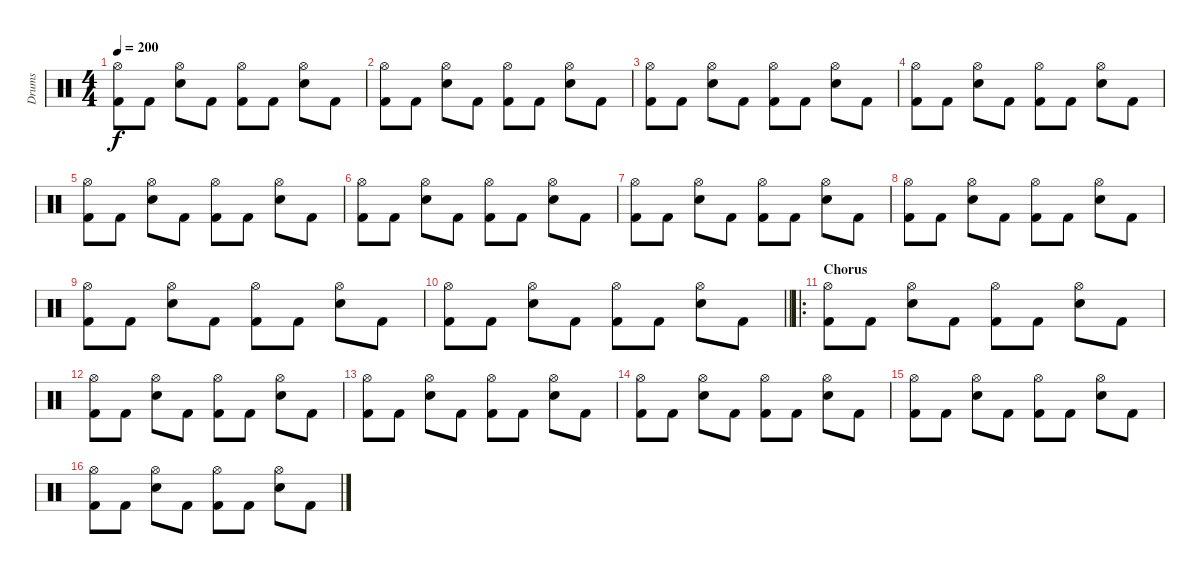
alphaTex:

\track ("Drums" "Drums") {instrument percussion}
\staff {score}
\articulation defaults
\ts (4 4)
\tempo 200
\clef neutral
\ks c
("Kick (hit) 2" "Hi-Hat (open)").8{dy f} "Kick (hit) 2".8 ("Snare (hit) 2" "Hi-Hat (open)").8 "Kick (hit) 2".8 ("Kick (hit) 2" "Hi-Hat (open)").8 "Kick (hit) 2".8 ("Snare (hit) 2" "Hi-Hat (open)").8 "Kick (hit) 2".8 |
("Kick (hit) 2" "Hi-Hat (open)").8 "Kick (hit) 2".8 ("Snare (hit) 2" "Hi-Hat (open)").8 "Kick (hit) 2".8 ("Kick (hit) 2" "Hi-Hat (open)").8 "Kick (hit) 2".8 ("Snare (hit) 2" "Hi-Hat (open)").8 "Kick (hit) 2".8 |
("Kick (hit) 2" "Hi-Hat (open)").8 "Kick (hit) 2".8 ("Snare (hit) 2" "Hi-Hat (open)").8 "Kick (hit) 2".8 ("Kick (hit) 2" "Hi-Hat (open)").8 "Kick (hit) 2".8 ("Snare (hit) 2" "Hi-Hat (open)").8 "Kick (hit) 2".8 |
("Kick (hit) 2" "Hi-Hat (open)").8 "Kick (hit) 2".8 ("Snare (hit) 2" "Hi-Hat (open)").8 "Kick (hit) 2".8 ("Kick (hit) 2" "Hi-Hat (open)").8 "Kick (hit) 2".8 ("Snare (hit) 2" "Hi-Hat (open)").8 "Kick (hit) 2".8 |
("Kick (hit) 2" "Hi-Hat (open)").8 "Kick (hit) 2".8 ("Snare (hit) 2" "Hi-Hat (open)").8 "Kick (hit) 2".8 ("Kick (hit) 2" "Hi-Hat (open)").8 "Kick (hit) 2".8 ("Snare (hit) 2" "Hi-Hat (open)").8 "Kick (hit) 2".8 |
("Kick (hit) 2" "Hi-Hat (open)").8 "Kick (hit) 2".8 ("Snare (hit) 2" "Hi-Hat (open)").8 "Kick (hit) 2".8 ("Kick (hit) 2" "Hi-Hat (open)").8 "Kick (hit) 2".8 ("Snare (hit) 2" "Hi-Hat (open)").8 "Kick (hit) 2".8 |
("Kick (hit) 2" "Hi-Hat (open)").8 "Kick (hit) 2".8 ("Snare (hit) 2" "Hi-Hat (open)").8 "Kick (hit) 2".8 ("Kick (hit) 2" "Hi-Hat (open)").8 "Kick (hit) 2".8 ("Snare (hit) 2" "Hi-Hat (open)").8 "Kick (hit) 2".8 |
("Kick (hit) 2" "Hi-Hat (open)").8 "Kick (hit) 2".8 ("Snare (hit) 2" "Hi-Hat (open)").8 "Kick (hit) 2".8 ("Kick (hit) 2" "Hi-Hat (open)").8 "Kick (hit) 2".8 ("Snare (hit) 2" "Hi-Hat (open)").8 "Kick (hit) 2".8 |
("Kick (hit) 2" "Hi-Hat (open)").8 "Kick (hit) 2".8 ("Snare (hit) 2" "Hi-Hat (open)").8 "Kick (hit) 2".8 ("Kick (hit) 2" "Hi-Hat (open)").8 "Kick (hit) 2".8 ("Snare (hit) 2" "Hi-Hat (open)").8 "Kick (hit) 2".8 |
\barLineRight lightlight
("Kick (hit) 2" "Hi-Hat (open)").8 "Kick (hit) 2".8 ("Snare (hit) 2" "Hi-Hat (open)").8 "Kick (hit) 2".8 ("Kick (hit) 2" "Hi-Hat (open)").8 "Kick (hit) 2".8 ("Snare (hit) 2" "Hi-Hat (open)").8 "Kick (hit) 2".8 |
\ro
\section ("" "Chorus")
("Kick (hit) 2" "Hi-Hat (open)").8 "Kick (hit) 2".8 ("Snare (hit) 2" "Hi-Hat (open)").8 "Kick (hit) 2".8 ("Kick (hit) 2" "Hi-Hat (open)").8 "Kick (hit) 2".8 ("Snare (hit) 2" "Hi-Hat (open)").8 "Kick (hit) 2".8 |
("Kick (hit) 2" "Hi-Hat (open)").8 "Kick (hit) 2".8 ("Snare (hit) 2" "Hi-Hat (open)").8 "Kick (hit) 2".8 ("Kick (hit) 2" "Hi-Hat (open)").8 "Kick (hit) 2".8 ("Snare (hit) 2" "Hi-Hat (open)").8 "Kick (hit) 2".8 |
("Kick (hit) 2" "Hi-Hat (open)").8 "Kick (hit) 2".8 ("Snare (hit) 2" "Hi-Hat (open)").8 "Kick (hit) 2".8 ("Kick (hit) 2" "Hi-Hat (open)").8 "Kick (hit) 2".8 ("Snare (hit) 2" "Hi-Hat (open)").8 "Kick (hit) 2".8 |
("Kick (hit) 2" "Hi-Hat (open)").8 "Kick (hit) 2".8 ("Snare (hit) 2" "Hi-Hat (open)").8 "Kick (hit) 2".8 ("Kick (hit) 2" "Hi-Hat (open)").8 "Kick (hit) 2".8 ("Snare (hit) 2" "Hi-Hat (open)").8 "Kick (hit) 2".8 |
("Kick (hit) 2" "Hi-Hat (open)").8 "Kick (hit) 2".8 ("Snare (hit) 2" "Hi-Hat (open)").8 "Kick (hit) 2".8 ("Kick (hit) 2" "Hi-Hat (open)").8 "Kick (hit) 2".8 ("Snare (hit) 2" "Hi-Hat (open)").8 "Kick (hit) 2".8 |
("Kick (hit) 2" "Hi-Hat (open)").8 "Kick (hit) 2".8 ("Snare (hit) 2" "Hi-Hat (open)").8 "Kick (hit) 2".8 ("Kick (hit) 2" "Hi-Hat (open)").8 "Kick (hit) 2".8 ("Snare (hit) 2" "Hi-Hat (open)").8 "Kick (hit) 2".8
